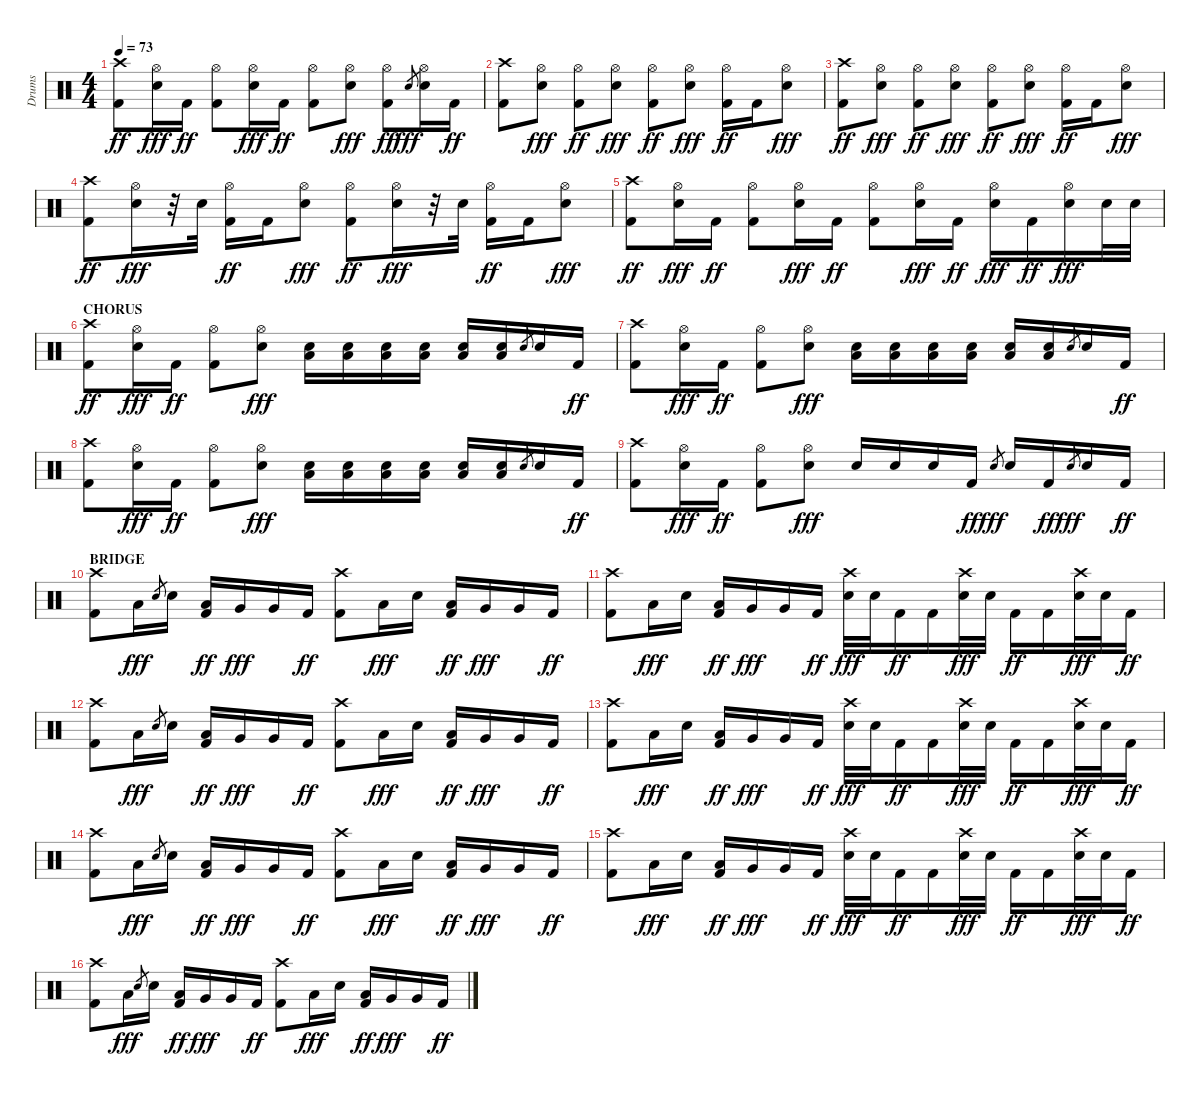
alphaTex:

\track ("Drums" "Drums") {instrument percussion}
\staff {score}
\articulation defaults
\ts (4 4)
\tempo 73
\clef neutral
\ks c
("Crash high (hit)" "Kick (hit) 2").8{dy ff} ("Hi-Hat (open)" "Electric Snare (hit)").16{dy fff} "Kick (hit) 2".16{dy ff} ("Hi-Hat (open)" "Kick (hit) 2").8 ("Hi-Hat (open)" "Electric Snare (hit)").16{dy fff} "Kick (hit) 2".16{dy ff} ("Hi-Hat (open)" "Kick (hit) 2").8 ("Hi-Hat (open)" "Electric Snare (hit)").8{dy fff} ("Hi-Hat (open)" "Kick (hit) 2").8{dy ff} "Electric Snare (hit)".8{gr dy fff} ("Hi-Hat (open)" "Electric Snare (hit)").16 "Kick (hit) 2".16{dy ff} |
("Crash high (hit)" "Kick (hit) 2").8 ("Hi-Hat (open)" "Electric Snare (hit)").8{dy fff} ("Hi-Hat (open)" "Kick (hit) 2").8{dy ff} ("Hi-Hat (open)" "Electric Snare (hit)").8{dy fff} ("Hi-Hat (open)" "Kick (hit) 2").8{dy ff} ("Hi-Hat (open)" "Electric Snare (hit)").8{dy fff} ("Hi-Hat (open)" "Kick (hit) 2").16{dy ff} "Kick (hit) 2".16 ("Hi-Hat (open)" "Electric Snare (hit)").8{dy fff} |
("Crash high (hit)" "Kick (hit) 2").8{dy ff} ("Hi-Hat (open)" "Electric Snare (hit)").8{dy fff} ("Hi-Hat (open)" "Kick (hit) 2").8{dy ff} ("Hi-Hat (open)" "Electric Snare (hit)").8{dy fff} ("Hi-Hat (open)" "Kick (hit) 2").8{dy ff} ("Hi-Hat (open)" "Electric Snare (hit)").8{dy fff} ("Hi-Hat (open)" "Kick (hit) 2").16{dy ff} "Kick (hit) 2".16 ("Hi-Hat (open)" "Electric Snare (hit)").8{dy fff} |
("Crash high (hit)" "Kick (hit) 2").8{dy ff} ("Hi-Hat (open)" "Electric Snare (hit)").16{dy fff} r.32 "Electric Snare (hit)".32 ("Hi-Hat (open)" "Kick (hit) 2").16{dy ff} "Kick (hit) 2".16 ("Hi-Hat (open)" "Electric Snare (hit)").8{dy fff} ("Hi-Hat (open)" "Kick (hit) 2").8{dy ff} ("Hi-Hat (open)" "Electric Snare (hit)").16{dy fff} r.32 "Electric Snare (hit)".32 ("Hi-Hat (open)" "Kick (hit) 2").16{dy ff} "Kick (hit) 2".16 ("Hi-Hat (open)" "Electric Snare (hit)").8{dy fff} |
("Crash high (hit)" "Kick (hit) 2").8{dy ff} ("Hi-Hat (open)" "Electric Snare (hit)").16{dy fff} "Kick (hit) 2".16{dy ff} ("Hi-Hat (open)" "Kick (hit) 2").8 ("Hi-Hat (open)" "Electric Snare (hit)").16{dy fff} "Kick (hit) 2".16{dy ff} ("Hi-Hat (open)" "Kick (hit) 2").8 ("Hi-Hat (open)" "Electric Snare (hit)").16{dy fff} "Kick (hit) 2".16{dy ff} ("Hi-Hat (open)" "Electric Snare (hit)").16{dy fff} "Kick (hit) 2".16{dy ff} ("Hi-Hat (open)" "Electric Snare (hit)").16{dy fff} "Electric Snare (hit)".32 "Electric Snare (hit)".32 |
\section ("" "CHORUS")
("Crash high (hit)" "Kick (hit) 2").8{dy ff} ("Hi-Hat (open)" "Electric Snare (hit)").16{dy fff} "Kick (hit) 2".16{dy ff} ("Hi-Hat (open)" "Kick (hit) 2").8 ("Hi-Hat (open)" "Electric Snare (hit)").8{dy fff} ("Low Floor Tom (hit)" "Electric Snare (hit)").16 ("Low Floor Tom (hit)" "Electric Snare (hit)").16 ("Low Floor Tom (hit)" "Electric Snare (hit)").16 ("Low Floor Tom (hit)" "Electric Snare (hit)").16 ("Low Floor Tom (hit)" "Electric Snare (hit)").16 ("Low Floor Tom (hit)" "Electric Snare (hit)").16 "Electric Snare (hit)".8{gr} "Electric Snare (hit)".16 "Kick (hit) 2".16{dy ff} |
("Crash high (hit)" "Kick (hit) 2").8 ("Hi-Hat (open)" "Electric Snare (hit)").16{dy fff} "Kick (hit) 2".16{dy ff} ("Hi-Hat (open)" "Kick (hit) 2").8 ("Hi-Hat (open)" "Electric Snare (hit)").8{dy fff} ("Low Floor Tom (hit)" "Electric Snare (hit)").16 ("Low Floor Tom (hit)" "Electric Snare (hit)").16 ("Low Floor Tom (hit)" "Electric Snare (hit)").16 ("Low Floor Tom (hit)" "Electric Snare (hit)").16 ("Low Floor Tom (hit)" "Electric Snare (hit)").16 ("Low Floor Tom (hit)" "Electric Snare (hit)").16 "Electric Snare (hit)".8{gr} "Electric Snare (hit)".16 "Kick (hit) 2".16{dy ff} |
("Crash high (hit)" "Kick (hit) 2").8 ("Hi-Hat (open)" "Electric Snare (hit)").16{dy fff} "Kick (hit) 2".16{dy ff} ("Hi-Hat (open)" "Kick (hit) 2").8 ("Hi-Hat (open)" "Electric Snare (hit)").8{dy fff} ("Low Floor Tom (hit)" "Electric Snare (hit)").16 ("Low Floor Tom (hit)" "Electric Snare (hit)").16 ("Low Floor Tom (hit)" "Electric Snare (hit)").16 ("Low Floor Tom (hit)" "Electric Snare (hit)").16 ("Low Floor Tom (hit)" "Electric Snare (hit)").16 ("Low Floor Tom (hit)" "Electric Snare (hit)").16 "Electric Snare (hit)".8{gr} "Electric Snare (hit)".16 "Kick (hit) 2".16{dy ff} |
("Crash high (hit)" "Kick (hit) 2").8 ("Hi-Hat (open)" "Electric Snare (hit)").16{dy fff} "Kick (hit) 2".16{dy ff} ("Hi-Hat (open)" "Kick (hit) 2").8 ("Hi-Hat (open)" "Electric Snare (hit)").8{dy fff} "Electric Snare (hit)".16 "Electric Snare (hit)".16 "Electric Snare (hit)".16 "Kick (hit) 2".16{dy ff} "Electric Snare (hit)".8{gr dy fff} "Electric Snare (hit)".16 "Kick (hit) 2".16{dy ff} "Electric Snare (hit)".8{gr dy fff} "Electric Snare (hit)".16 "Kick (hit) 2".16{dy ff} |
\section ("" "BRIDGE")
("Crash high (hit)" "Kick (hit) 2").8 "Low Tom (hit)".16{dy fff} "Electric Snare (hit)".8{gr} "Electric Snare (hit)".16 ("Low Tom (hit)" "Kick (hit) 2").16{dy ff} "Very Low Tom (hit)".16{dy fff} "Very Low Tom (hit)".16 "Kick (hit) 2".16{dy ff} ("Crash high (hit)" "Kick (hit) 2").8 "Low Tom (hit)".16{dy fff} "Electric Snare (hit)".16 ("Low Tom (hit)" "Kick (hit) 2").16{dy ff} "Very Low Tom (hit)".16{dy fff} "Very Low Tom (hit)".16 "Kick (hit) 2".16{dy ff} |
("Crash high (hit)" "Kick (hit) 2").8 "Low Tom (hit)".16{dy fff} "Electric Snare (hit)".16 ("Low Tom (hit)" "Kick (hit) 2").16{dy ff} "Very Low Tom (hit)".16{dy fff} "Very Low Tom (hit)".16 "Kick (hit) 2".16{dy ff} ("Crash high (hit)" "Electric Snare (hit)").32{dy fff} "Electric Snare (hit)".32 "Kick (hit) 2".16{dy ff} "Kick (hit) 2".16 ("Crash high (hit)" "Electric Snare (hit)").32{dy fff} "Electric Snare (hit)".32 "Kick (hit) 2".16{dy ff} "Kick (hit) 2".16 ("Crash high (hit)" "Electric Snare (hit)").32{dy fff} "Electric Snare (hit)".32 "Kick (hit) 2".16{dy ff} |
("Crash high (hit)" "Kick (hit) 2").8 "Low Tom (hit)".16{dy fff} "Electric Snare (hit)".8{gr} "Electric Snare (hit)".16 ("Low Tom (hit)" "Kick (hit) 2").16{dy ff} "Very Low Tom (hit)".16{dy fff} "Very Low Tom (hit)".16 "Kick (hit) 2".16{dy ff} ("Crash high (hit)" "Kick (hit) 2").8 "Low Tom (hit)".16{dy fff} "Electric Snare (hit)".16 ("Low Tom (hit)" "Kick (hit) 2").16{dy ff} "Very Low Tom (hit)".16{dy fff} "Very Low Tom (hit)".16 "Kick (hit) 2".16{dy ff} |
("Crash high (hit)" "Kick (hit) 2").8 "Low Tom (hit)".16{dy fff} "Electric Snare (hit)".16 ("Low Tom (hit)" "Kick (hit) 2").16{dy ff} "Very Low Tom (hit)".16{dy fff} "Very Low Tom (hit)".16 "Kick (hit) 2".16{dy ff} ("Crash high (hit)" "Electric Snare (hit)").32{dy fff} "Electric Snare (hit)".32 "Kick (hit) 2".16{dy ff} "Kick (hit) 2".16 ("Crash high (hit)" "Electric Snare (hit)").32{dy fff} "Electric Snare (hit)".32 "Kick (hit) 2".16{dy ff} "Kick (hit) 2".16 ("Crash high (hit)" "Electric Snare (hit)").32{dy fff} "Electric Snare (hit)".32 "Kick (hit) 2".16{dy ff} |
("Crash high (hit)" "Kick (hit) 2").8 "Low Tom (hit)".16{dy fff} "Electric Snare (hit)".8{gr} "Electric Snare (hit)".16 ("Low Tom (hit)" "Kick (hit) 2").16{dy ff} "Very Low Tom (hit)".16{dy fff} "Very Low Tom (hit)".16 "Kick (hit) 2".16{dy ff} ("Crash high (hit)" "Kick (hit) 2").8 "Low Tom (hit)".16{dy fff} "Electric Snare (hit)".16 ("Low Tom (hit)" "Kick (hit) 2").16{dy ff} "Very Low Tom (hit)".16{dy fff} "Very Low Tom (hit)".16 "Kick (hit) 2".16{dy ff} |
("Crash high (hit)" "Kick (hit) 2").8 "Low Tom (hit)".16{dy fff} "Electric Snare (hit)".16 ("Low Tom (hit)" "Kick (hit) 2").16{dy ff} "Very Low Tom (hit)".16{dy fff} "Very Low Tom (hit)".16 "Kick (hit) 2".16{dy ff} ("Crash high (hit)" "Electric Snare (hit)").32{dy fff} "Electric Snare (hit)".32 "Kick (hit) 2".16{dy ff} "Kick (hit) 2".16 ("Crash high (hit)" "Electric Snare (hit)").32{dy fff} "Electric Snare (hit)".32 "Kick (hit) 2".16{dy ff} "Kick (hit) 2".16 ("Crash high (hit)" "Electric Snare (hit)").32{dy fff} "Electric Snare (hit)".32 "Kick (hit) 2".16{dy ff} |
("Crash high (hit)" "Kick (hit) 2").8 "Low Tom (hit)".16{dy fff} "Electric Snare (hit)".8{gr} "Electric Snare (hit)".16 ("Low Tom (hit)" "Kick (hit) 2").16{dy ff} "Very Low Tom (hit)".16{dy fff} "Very Low Tom (hit)".16 "Kick (hit) 2".16{dy ff} ("Crash high (hit)" "Kick (hit) 2").8 "Low Tom (hit)".16{dy fff} "Electric Snare (hit)".16 ("Low Tom (hit)" "Kick (hit) 2").16{dy ff} "Very Low Tom (hit)".16{dy fff} "Very Low Tom (hit)".16 "Kick (hit) 2".16{dy ff}
